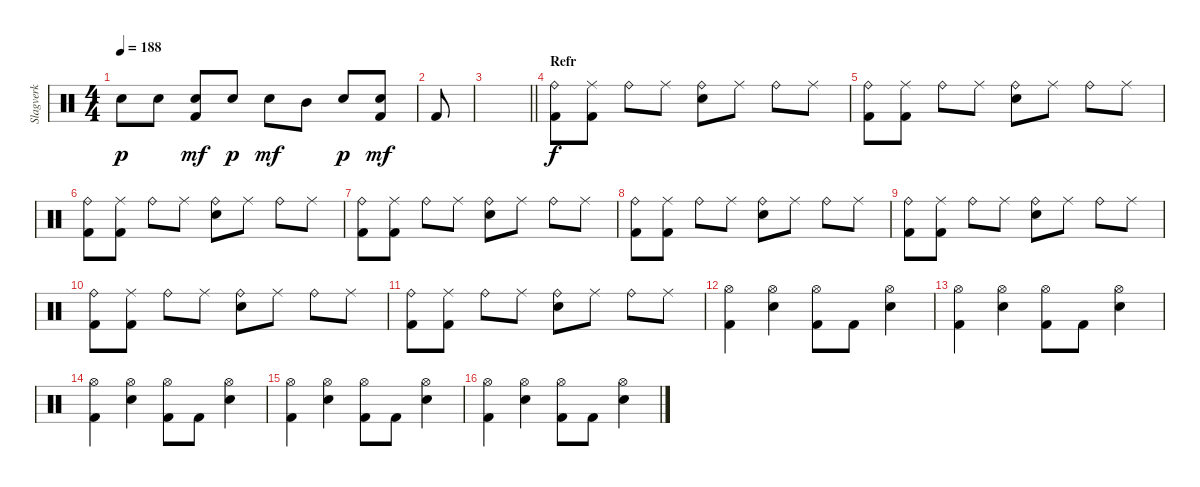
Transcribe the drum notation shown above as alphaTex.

\track ("Slagverk" "Slagverk") {instrument percussion}
\staff {score}
\articulation defaults
\ts (4 4)
\tempo 188
\clef neutral
\ks c "Electric Snare (hit)".8{dy p} "Electric Snare (hit)".8
("Electric Snare (hit)" "Kick (hit) 2").8{dy mf} "Electric Snare (hit)".8{dy p} "Electric Snare (hit)".8{dy mf} "Mid Tom (hit)".8 "Electric Snare (hit)".8{dy p} ("Electric Snare (hit)" "Kick (hit) 2").8{dy mf} |
"Kick (hit) 2".8 |
\barLineRight lightlight
|
\section ("" "Refr")
("Ride (bell)" "Kick (hit) 2").8{dy f} ("Ride (middle)" "Kick (hit) 2").8 "Ride (bell)".8 "Ride (middle)".8 ("Ride (bell)" "Electric Snare (hit)").8 "Ride (middle)".8 "Ride (bell)".8 "Ride (middle)".8 |
("Ride (bell)" "Kick (hit) 2").8 ("Ride (middle)" "Kick (hit) 2").8 "Ride (bell)".8 "Ride (middle)".8 ("Ride (bell)" "Electric Snare (hit)").8 "Ride (middle)".8 "Ride (bell)".8 "Ride (middle)".8 |
("Ride (bell)" "Kick (hit) 2").8 ("Ride (middle)" "Kick (hit) 2").8 "Ride (bell)".8 "Ride (middle)".8 ("Ride (bell)" "Electric Snare (hit)").8 "Ride (middle)".8 "Ride (bell)".8 "Ride (middle)".8 |
("Ride (bell)" "Kick (hit) 2").8 ("Ride (middle)" "Kick (hit) 2").8 "Ride (bell)".8 "Ride (middle)".8 ("Ride (bell)" "Electric Snare (hit)").8 "Ride (middle)".8 "Ride (bell)".8 "Ride (middle)".8 |
("Ride (bell)" "Kick (hit) 2").8 ("Ride (middle)" "Kick (hit) 2").8 "Ride (bell)".8 "Ride (middle)".8 ("Ride (bell)" "Electric Snare (hit)").8 "Ride (middle)".8 "Ride (bell)".8 "Ride (middle)".8 |
("Ride (bell)" "Kick (hit) 2").8 ("Ride (middle)" "Kick (hit) 2").8 "Ride (bell)".8 "Ride (middle)".8 ("Ride (bell)" "Electric Snare (hit)").8 "Ride (middle)".8 "Ride (bell)".8 "Ride (middle)".8 |
("Ride (bell)" "Kick (hit) 2").8 ("Ride (middle)" "Kick (hit) 2").8 "Ride (bell)".8 "Ride (middle)".8 ("Ride (bell)" "Electric Snare (hit)").8 "Ride (middle)".8 "Ride (bell)".8 "Ride (middle)".8 |
("Ride (bell)" "Kick (hit) 2").8 ("Ride (middle)" "Kick (hit) 2").8 "Ride (bell)".8 "Ride (middle)".8 ("Ride (bell)" "Electric Snare (hit)").8 "Ride (middle)".8 "Ride (bell)".8 "Ride (middle)".8 |
("Hi-Hat (open)" "Kick (hit) 2").4 ("Hi-Hat (open)" "Electric Snare (hit)").4 ("Hi-Hat (open)" "Kick (hit) 2").8 "Kick (hit) 2".8 ("Hi-Hat (open)" "Electric Snare (hit)").4 |
("Hi-Hat (open)" "Kick (hit) 2").4 ("Hi-Hat (open)" "Electric Snare (hit)").4 ("Hi-Hat (open)" "Kick (hit) 2").8 "Kick (hit) 2".8 ("Hi-Hat (open)" "Electric Snare (hit)").4 |
("Hi-Hat (open)" "Kick (hit) 2").4 ("Hi-Hat (open)" "Electric Snare (hit)").4 ("Hi-Hat (open)" "Kick (hit) 2").8 "Kick (hit) 2".8 ("Hi-Hat (open)" "Electric Snare (hit)").4 |
("Hi-Hat (open)" "Kick (hit) 2").4 ("Hi-Hat (open)" "Electric Snare (hit)").4 ("Hi-Hat (open)" "Kick (hit) 2").8 "Kick (hit) 2".8 ("Hi-Hat (open)" "Electric Snare (hit)").4 |
("Hi-Hat (open)" "Kick (hit) 2").4 ("Hi-Hat (open)" "Electric Snare (hit)").4 ("Hi-Hat (open)" "Kick (hit) 2").8 "Kick (hit) 2".8 ("Hi-Hat (open)" "Electric Snare (hit)").4
